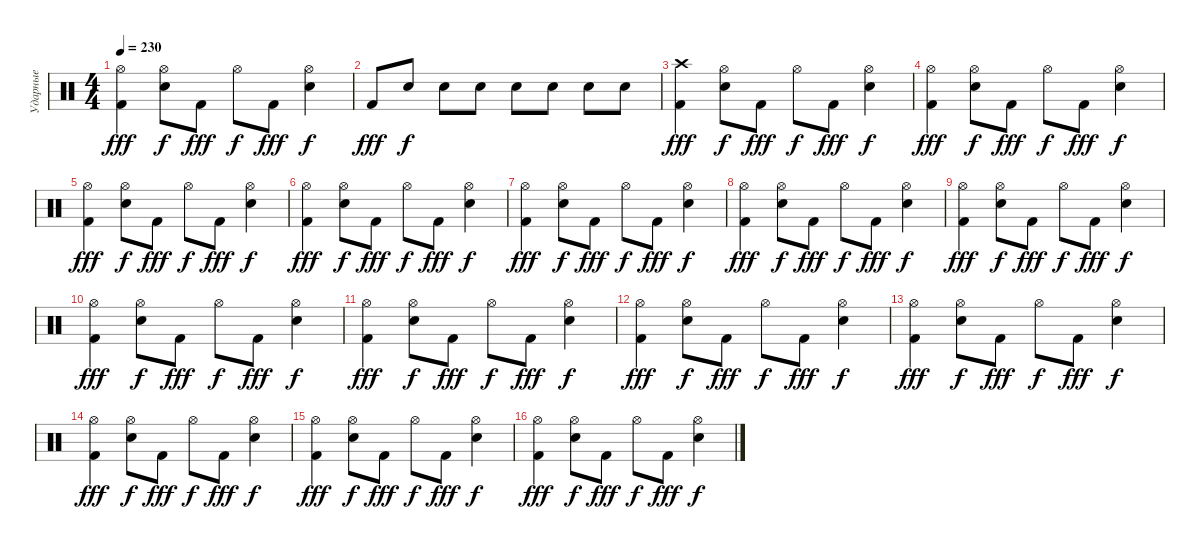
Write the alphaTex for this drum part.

\track ("Ударные" "Ударные") {instrument percussion}
\staff
\articulation defaults
\ts (4 4)
\tempo 230
\clef neutral
\ks c
("Kick (hit) 2" "Hi-Hat (open)").4{dy fff} ("Snare (hit) 2" "Hi-Hat (open)").8{dy f} "Kick (hit) 2".8{dy fff} "Hi-Hat (open)".8{dy f} "Kick (hit) 2".8{dy fff} ("Snare (hit) 2" "Hi-Hat (open)").4{dy f} |
"Kick (hit) 2".8{dy fff} "Snare (hit) 2".8{dy f} "Snare (hit) 2".8 "Snare (hit) 2".8 "Snare (hit) 2".8 "Snare (hit) 2".8 "Snare (hit) 2".8 "Snare (hit) 2".8 |
("Kick (hit) 2" "Crash high (hit)").4{dy fff} ("Snare (hit) 2" "Hi-Hat (open)").8{dy f} "Kick (hit) 2".8{dy fff} "Hi-Hat (open)".8{dy f} "Kick (hit) 2".8{dy fff} ("Snare (hit) 2" "Hi-Hat (open)").4{dy f} |
("Kick (hit) 2" "Hi-Hat (open)").4{dy fff} ("Snare (hit) 2" "Hi-Hat (open)").8{dy f} "Kick (hit) 2".8{dy fff} "Hi-Hat (open)".8{dy f} "Kick (hit) 2".8{dy fff} ("Snare (hit) 2" "Hi-Hat (open)").4{dy f} |
("Kick (hit) 2" "Hi-Hat (open)").4{dy fff} ("Snare (hit) 2" "Hi-Hat (open)").8{dy f} "Kick (hit) 2".8{dy fff} "Hi-Hat (open)".8{dy f} "Kick (hit) 2".8{dy fff} ("Snare (hit) 2" "Hi-Hat (open)").4{dy f} |
("Kick (hit) 2" "Hi-Hat (open)").4{dy fff} ("Snare (hit) 2" "Hi-Hat (open)").8{dy f} "Kick (hit) 2".8{dy fff} "Hi-Hat (open)".8{dy f} "Kick (hit) 2".8{dy fff} ("Snare (hit) 2" "Hi-Hat (open)").4{dy f} |
("Kick (hit) 2" "Hi-Hat (open)").4{dy fff} ("Snare (hit) 2" "Hi-Hat (open)").8{dy f} "Kick (hit) 2".8{dy fff} "Hi-Hat (open)".8{dy f} "Kick (hit) 2".8{dy fff} ("Snare (hit) 2" "Hi-Hat (open)").4{dy f} |
("Kick (hit) 2" "Hi-Hat (open)").4{dy fff} ("Snare (hit) 2" "Hi-Hat (open)").8{dy f} "Kick (hit) 2".8{dy fff} "Hi-Hat (open)".8{dy f} "Kick (hit) 2".8{dy fff} ("Snare (hit) 2" "Hi-Hat (open)").4{dy f} |
("Kick (hit) 2" "Hi-Hat (open)").4{dy fff} ("Snare (hit) 2" "Hi-Hat (open)").8{dy f} "Kick (hit) 2".8{dy fff} "Hi-Hat (open)".8{dy f} "Kick (hit) 2".8{dy fff} ("Snare (hit) 2" "Hi-Hat (open)").4{dy f} |
("Kick (hit) 2" "Hi-Hat (open)").4{dy fff} ("Snare (hit) 2" "Hi-Hat (open)").8{dy f} "Kick (hit) 2".8{dy fff} "Hi-Hat (open)".8{dy f} "Kick (hit) 2".8{dy fff} ("Snare (hit) 2" "Hi-Hat (open)").4{dy f} |
("Kick (hit) 2" "Hi-Hat (open)").4{dy fff} ("Snare (hit) 2" "Hi-Hat (open)").8{dy f} "Kick (hit) 2".8{dy fff} "Hi-Hat (open)".8{dy f} "Kick (hit) 2".8{dy fff} ("Snare (hit) 2" "Hi-Hat (open)").4{dy f} |
("Kick (hit) 2" "Hi-Hat (open)").4{dy fff} ("Snare (hit) 2" "Hi-Hat (open)").8{dy f} "Kick (hit) 2".8{dy fff} "Hi-Hat (open)".8{dy f} "Kick (hit) 2".8{dy fff} ("Snare (hit) 2" "Hi-Hat (open)").4{dy f} |
("Kick (hit) 2" "Hi-Hat (open)").4{dy fff} ("Snare (hit) 2" "Hi-Hat (open)").8{dy f} "Kick (hit) 2".8{dy fff} "Hi-Hat (open)".8{dy f} "Kick (hit) 2".8{dy fff} ("Snare (hit) 2" "Hi-Hat (open)").4{dy f} |
("Kick (hit) 2" "Hi-Hat (open)").4{dy fff} ("Snare (hit) 2" "Hi-Hat (open)").8{dy f} "Kick (hit) 2".8{dy fff} "Hi-Hat (open)".8{dy f} "Kick (hit) 2".8{dy fff} ("Snare (hit) 2" "Hi-Hat (open)").4{dy f} |
("Kick (hit) 2" "Hi-Hat (open)").4{dy fff} ("Snare (hit) 2" "Hi-Hat (open)").8{dy f} "Kick (hit) 2".8{dy fff} "Hi-Hat (open)".8{dy f} "Kick (hit) 2".8{dy fff} ("Snare (hit) 2" "Hi-Hat (open)").4{dy f} |
("Kick (hit) 2" "Hi-Hat (open)").4{dy fff} ("Snare (hit) 2" "Hi-Hat (open)").8{dy f} "Kick (hit) 2".8{dy fff} "Hi-Hat (open)".8{dy f} "Kick (hit) 2".8{dy fff} ("Snare (hit) 2" "Hi-Hat (open)").4{dy f}
